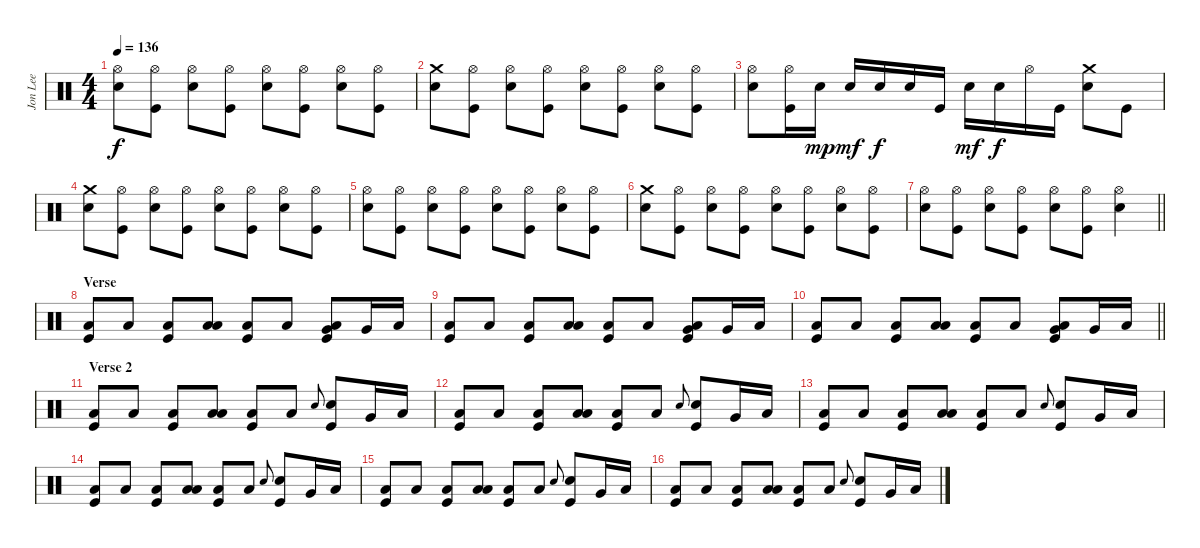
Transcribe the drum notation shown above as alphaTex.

\track ("Jon Lee" "Jon Lee") {instrument percussion}
\staff {score}
\articulation defaults
\ts (4 4)
\tempo 136
\clef neutral
\ks c
("Hi-Hat (open)" "Electric Snare (hit)").8{dy f} ("Hi-Hat (open)" "Kick (hit)").8 ("Hi-Hat (open)" "Electric Snare (hit)").8 ("Hi-Hat (open)" "Kick (hit)").8 ("Hi-Hat (open)" "Electric Snare (hit)").8 ("Hi-Hat (open)" "Kick (hit)").8 ("Hi-Hat (open)" "Electric Snare (hit)").8 ("Hi-Hat (open)" "Kick (hit)").8 |
("Crash medium (hit)" "Electric Snare (hit)").8 ("Hi-Hat (open)" "Kick (hit)").8 ("Hi-Hat (open)" "Electric Snare (hit)").8 ("Hi-Hat (open)" "Kick (hit)").8 ("Hi-Hat (open)" "Electric Snare (hit)").8 ("Hi-Hat (open)" "Kick (hit)").8 ("Hi-Hat (open)" "Electric Snare (hit)").8 ("Hi-Hat (open)" "Kick (hit)").8 |
("Hi-Hat (open)" "Electric Snare (hit)").8 ("Hi-Hat (open)" "Kick (hit)").16 "Electric Snare (hit)".16{dy mp} "Electric Snare (hit)".16{dy mf} "Electric Snare (hit)".16{dy f} "Electric Snare (hit)".16 "Kick (hit)".16 "Electric Snare (hit)".16{dy mf} "Electric Snare (hit)".16{dy f} "Hi-Hat (open)".16 "Kick (hit)".16 ("Crash medium (hit)" "Electric Snare (hit)").8 "Kick (hit)".8 |
("Crash medium (hit)" "Electric Snare (hit)").8 ("Hi-Hat (open)" "Kick (hit)").8 ("Hi-Hat (open)" "Electric Snare (hit)").8 ("Hi-Hat (open)" "Kick (hit)").8 ("Hi-Hat (open)" "Electric Snare (hit)").8 ("Hi-Hat (open)" "Kick (hit)").8 ("Hi-Hat (open)" "Electric Snare (hit)").8 ("Hi-Hat (open)" "Kick (hit)").8 |
("Hi-Hat (open)" "Electric Snare (hit)").8 ("Hi-Hat (open)" "Kick (hit)").8 ("Hi-Hat (open)" "Electric Snare (hit)").8 ("Hi-Hat (open)" "Kick (hit)").8 ("Hi-Hat (open)" "Electric Snare (hit)").8 ("Hi-Hat (open)" "Kick (hit)").8 ("Hi-Hat (open)" "Electric Snare (hit)").8 ("Hi-Hat (open)" "Kick (hit)").8 |
("Crash medium (hit)" "Electric Snare (hit)").8 ("Hi-Hat (open)" "Kick (hit)").8 ("Hi-Hat (open)" "Electric Snare (hit)").8 ("Hi-Hat (open)" "Kick (hit)").8 ("Hi-Hat (open)" "Electric Snare (hit)").8 ("Hi-Hat (open)" "Kick (hit)").8 ("Hi-Hat (open)" "Electric Snare (hit)").8 ("Hi-Hat (open)" "Kick (hit)").8 |
\barLineRight lightlight
("Hi-Hat (open)" "Electric Snare (hit)").8 ("Hi-Hat (open)" "Kick (hit)").8 ("Hi-Hat (open)" "Electric Snare (hit)").8 ("Hi-Hat (open)" "Kick (hit)").8 ("Hi-Hat (open)" "Electric Snare (hit)").8 ("Hi-Hat (open)" "Kick (hit)").8 ("Hi-Hat (open)" "Electric Snare (hit)").4 |
\section ("" "Verse")
("Low Floor Tom (hit)" "Kick (hit)").8 "Low Floor Tom (hit)".8 ("Low Floor Tom (hit)" "Kick (hit)").8 ("Low Floor Tom (hit)" "Low Tom (hit)").8 ("Low Floor Tom (hit)" "Kick (hit)").8 "Low Floor Tom (hit)".8 ("Low Floor Tom (hit)" "Very Low Tom (hit)" "Kick (hit)").8 "Very Low Tom (hit)".16 "Low Tom (hit)".16 |
("Low Floor Tom (hit)" "Kick (hit)").8 "Low Floor Tom (hit)".8 ("Low Floor Tom (hit)" "Kick (hit)").8 ("Low Floor Tom (hit)" "Low Tom (hit)").8 ("Low Floor Tom (hit)" "Kick (hit)").8 "Low Floor Tom (hit)".8 ("Low Floor Tom (hit)" "Very Low Tom (hit)" "Kick (hit)").8 "Very Low Tom (hit)".16 "Low Tom (hit)".16 |
\barLineRight lightlight
("Low Floor Tom (hit)" "Kick (hit)").8 "Low Floor Tom (hit)".8 ("Low Floor Tom (hit)" "Kick (hit)").8 ("Low Floor Tom (hit)" "Low Tom (hit)").8 ("Low Floor Tom (hit)" "Kick (hit)").8 "Low Floor Tom (hit)".8 ("Low Floor Tom (hit)" "Very Low Tom (hit)" "Kick (hit)").8 "Very Low Tom (hit)".16 "Low Tom (hit)".16 |
\section ("" "Verse 2")
("Low Floor Tom (hit)" "Kick (hit)").8 "Low Floor Tom (hit)".8 ("Low Floor Tom (hit)" "Kick (hit)").8 ("Low Floor Tom (hit)" "Low Tom (hit)").8 ("Low Floor Tom (hit)" "Kick (hit)").8 "Low Floor Tom (hit)".8 "Electric Snare (hit)".8{gr onbeat} ("Electric Snare (hit)" "Kick (hit)").8 "Very Low Tom (hit)".16 "Low Tom (hit)".16 |
("Low Floor Tom (hit)" "Kick (hit)").8 "Low Floor Tom (hit)".8 ("Low Floor Tom (hit)" "Kick (hit)").8 ("Low Floor Tom (hit)" "Low Tom (hit)").8 ("Low Floor Tom (hit)" "Kick (hit)").8 "Low Floor Tom (hit)".8 "Electric Snare (hit)".8{gr onbeat} ("Electric Snare (hit)" "Kick (hit)").8 "Very Low Tom (hit)".16 "Low Tom (hit)".16 |
("Low Floor Tom (hit)" "Kick (hit)").8 "Low Floor Tom (hit)".8 ("Low Floor Tom (hit)" "Kick (hit)").8 ("Low Floor Tom (hit)" "Low Tom (hit)").8 ("Low Floor Tom (hit)" "Kick (hit)").8 "Low Floor Tom (hit)".8 "Electric Snare (hit)".8{gr onbeat} ("Electric Snare (hit)" "Kick (hit)").8 "Very Low Tom (hit)".16 "Low Tom (hit)".16 |
("Low Floor Tom (hit)" "Kick (hit)").8 "Low Floor Tom (hit)".8 ("Low Floor Tom (hit)" "Kick (hit)").8 ("Low Floor Tom (hit)" "Low Tom (hit)").8 ("Low Floor Tom (hit)" "Kick (hit)").8 "Low Floor Tom (hit)".8 "Electric Snare (hit)".8{gr onbeat} ("Electric Snare (hit)" "Kick (hit)").8 "Very Low Tom (hit)".16 "Low Tom (hit)".16 |
("Low Floor Tom (hit)" "Kick (hit)").8 "Low Floor Tom (hit)".8 ("Low Floor Tom (hit)" "Kick (hit)").8 ("Low Floor Tom (hit)" "Low Tom (hit)").8 ("Low Floor Tom (hit)" "Kick (hit)").8 "Low Floor Tom (hit)".8 "Electric Snare (hit)".8{gr onbeat} ("Electric Snare (hit)" "Kick (hit)").8 "Very Low Tom (hit)".16 "Low Tom (hit)".16 |
("Low Floor Tom (hit)" "Kick (hit)").8 "Low Floor Tom (hit)".8 ("Low Floor Tom (hit)" "Kick (hit)").8 ("Low Floor Tom (hit)" "Low Tom (hit)").8 ("Low Floor Tom (hit)" "Kick (hit)").8 "Low Floor Tom (hit)".8 "Electric Snare (hit)".8{gr onbeat} ("Electric Snare (hit)" "Kick (hit)").8 "Very Low Tom (hit)".16 "Low Tom (hit)".16
